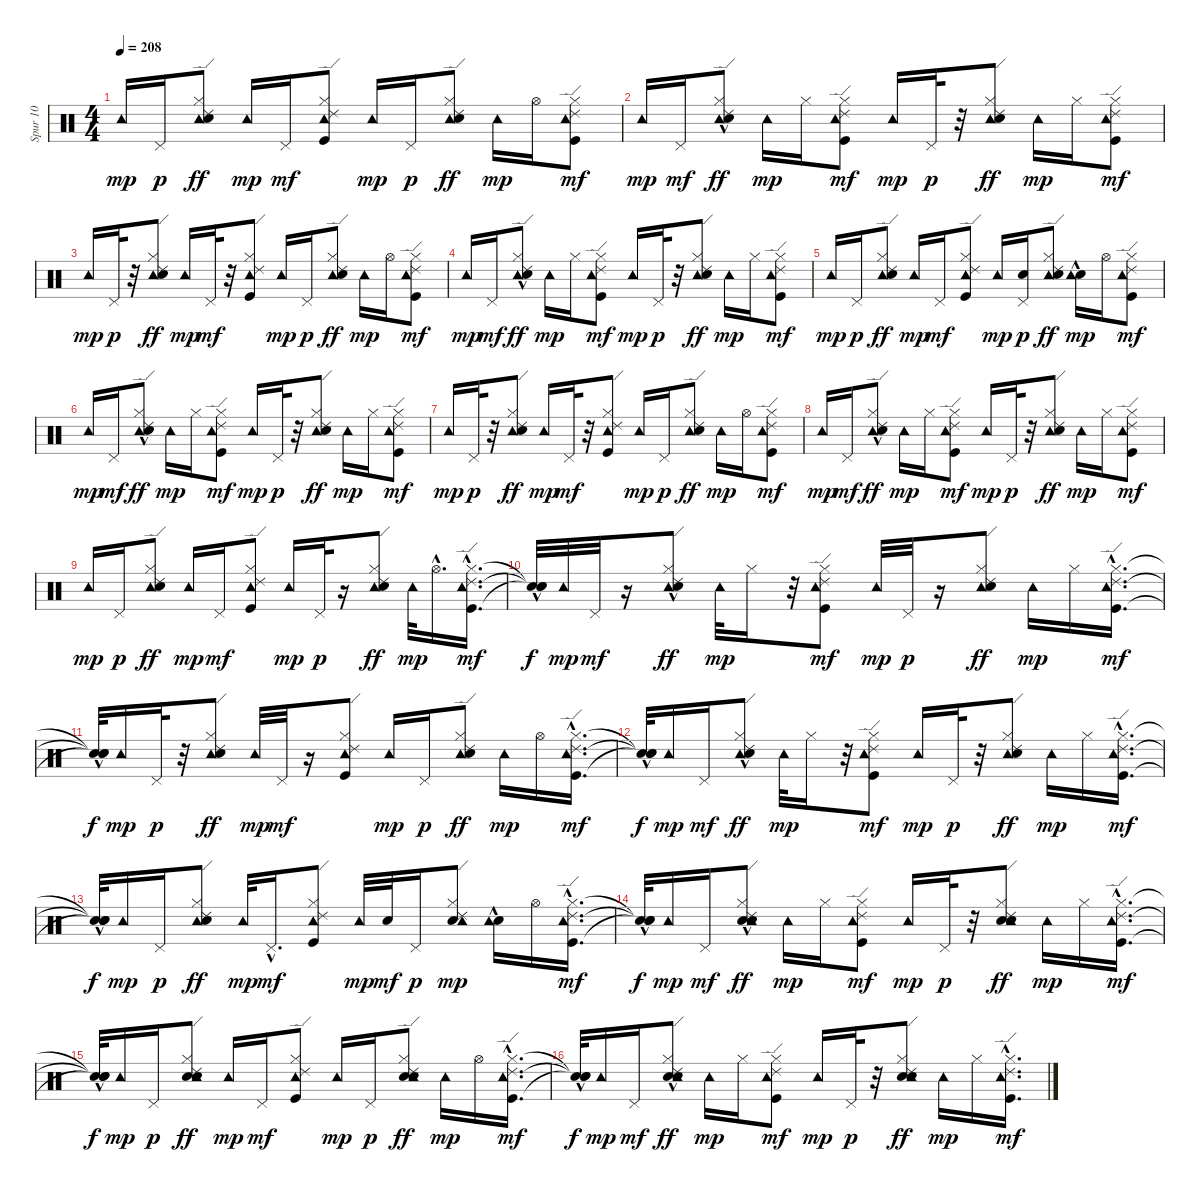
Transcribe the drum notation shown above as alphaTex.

\track ("Spur 10" "Spur 10") {instrument percussion}
\staff {score}
\articulation defaults
\ts (4 4)
\tempo 208
\clef neutral
\ks c "Tambourine (hit)".16{dy mp} "Pedal Hi-Hat (hit)".16{dy p}
("Tambourine (hit)" "Hi-Hat (closed)" "Electric Snare (hit)" "Ride (edge) 2").8{dy ff} "Tambourine (hit)".16{dy mp} "Pedal Hi-Hat (hit)".16{dy mf} ("Tambourine (hit)" "Hi-Hat (closed)" "Kick (hit)" "Ride (edge) 2").8 "Tambourine (hit)".16{dy mp} "Pedal Hi-Hat (hit)".16{dy p} ("Tambourine (hit)" "Hi-Hat (closed)" "Electric Snare (hit)" "Ride (edge) 2").8{dy ff} "Tambourine (hit)".16{dy mp} "Hi-Hat (open)".16 ("Tambourine (hit)" "Hi-Hat (closed)" "Kick (hit)" "Ride (edge) 2").8{dy mf} |
"Tambourine (hit)".16{dy mp} "Pedal Hi-Hat (hit)".16{dy mf} ("Tambourine (hit)" "Hi-Hat (closed)"{hac} "Electric Snare (hit)" "Ride (edge) 2").8{dy ff} "Tambourine (hit)".16{dy mp} "Hi-Hat (closed)".16 ("Tambourine (hit)" "Hi-Hat (closed)" "Kick (hit)" "Ride (edge) 2").8{dy mf} "Tambourine (hit)".16{dy mp} "Pedal Hi-Hat (hit)".32{dy p} r.32 ("Tambourine (hit)" "Hi-Hat (closed)" "Electric Snare (hit)" "Ride (edge) 2").8{dy ff} "Tambourine (hit)".16{dy mp} "Hi-Hat (closed)".16 ("Tambourine (hit)" "Hi-Hat (closed)" "Kick (hit)" "Ride (edge) 2").8{dy mf} |
"Tambourine (hit)".16{dy mp} "Pedal Hi-Hat (hit)".32{dy p} r.32 ("Tambourine (hit)" "Hi-Hat (closed)" "Electric Snare (hit)" "Ride (edge) 2").8{dy ff} "Tambourine (hit)".16{dy mp} "Pedal Hi-Hat (hit)".32{dy mf} r.32 ("Tambourine (hit)" "Hi-Hat (closed)" "Kick (hit)" "Ride (edge) 2").8 "Tambourine (hit)".16{dy mp} "Pedal Hi-Hat (hit)".16{dy p} ("Tambourine (hit)" "Hi-Hat (closed)" "Electric Snare (hit)" "Ride (edge) 2").8{dy ff} "Tambourine (hit)".16{dy mp} "Hi-Hat (open)".16 ("Tambourine (hit)" "Hi-Hat (closed)" "Kick (hit)" "Ride (edge) 2").8{dy mf} |
"Tambourine (hit)".16{dy mp} "Pedal Hi-Hat (hit)".16{dy mf} ("Tambourine (hit)" "Hi-Hat (closed)"{hac} "Electric Snare (hit)" "Ride (edge) 2").8{dy ff} "Tambourine (hit)".16{dy mp} "Hi-Hat (closed)".16 ("Tambourine (hit)" "Hi-Hat (closed)" "Kick (hit)" "Ride (edge) 2").8{dy mf} "Tambourine (hit)".16{dy mp} "Pedal Hi-Hat (hit)".32{dy p} r.32 ("Tambourine (hit)" "Hi-Hat (closed)" "Electric Snare (hit)" "Ride (edge) 2").8{dy ff} "Tambourine (hit)".16{dy mp} "Hi-Hat (closed)".16 ("Tambourine (hit)" "Hi-Hat (closed)" "Kick (hit)" "Ride (edge) 2").8{dy mf} |
"Tambourine (hit)".16{dy mp} "Pedal Hi-Hat (hit)".16{dy p} ("Tambourine (hit)" "Hi-Hat (closed)" "Electric Snare (hit)" "Ride (edge) 2").8{dy ff} "Tambourine (hit)".16{dy mp} "Pedal Hi-Hat (hit)".16{dy mf} ("Tambourine (hit)" "Hi-Hat (closed)" "Kick (hit)" "Ride (edge) 2").8 "Tambourine (hit)".16{dy mp} ("Electric Snare (hit)" "Pedal Hi-Hat (hit)").16{dy p} ("Tambourine (hit)" "Hi-Hat (closed)" "Electric Snare (hit)" "Ride (edge) 2").8{dy ff} ("Electric Snare (hit)"{hac} "Tambourine (hit)").16{dy mp} "Hi-Hat (open)".16 ("Tambourine (hit)" "Hi-Hat (closed)" "Kick (hit)" "Ride (edge) 2").8{dy mf} |
"Tambourine (hit)".16{dy mp} "Pedal Hi-Hat (hit)".16{dy mf} ("Tambourine (hit)" "Hi-Hat (closed)"{hac} "Electric Snare (hit)" "Ride (edge) 2").8{dy ff} "Tambourine (hit)".16{dy mp} "Hi-Hat (closed)".16 ("Tambourine (hit)" "Hi-Hat (closed)" "Kick (hit)" "Ride (edge) 2").8{dy mf} "Tambourine (hit)".16{dy mp} "Pedal Hi-Hat (hit)".32{dy p} r.32 ("Tambourine (hit)" "Hi-Hat (closed)" "Electric Snare (hit)" "Ride (edge) 2").8{dy ff} "Tambourine (hit)".16{dy mp} "Hi-Hat (closed)".16 ("Tambourine (hit)" "Hi-Hat (closed)" "Kick (hit)" "Ride (edge) 2").8{dy mf} |
"Tambourine (hit)".16{dy mp} "Pedal Hi-Hat (hit)".32{dy p} r.32 ("Tambourine (hit)" "Hi-Hat (closed)" "Electric Snare (hit)" "Ride (edge) 2").8{dy ff} "Tambourine (hit)".16{dy mp} "Pedal Hi-Hat (hit)".32{dy mf} r.32 ("Tambourine (hit)" "Hi-Hat (closed)" "Kick (hit)" "Ride (edge) 2").8 "Tambourine (hit)".16{dy mp} "Pedal Hi-Hat (hit)".16{dy p} ("Tambourine (hit)" "Hi-Hat (closed)" "Electric Snare (hit)" "Ride (edge) 2").8{dy ff} "Tambourine (hit)".16{dy mp} "Hi-Hat (open)".16 ("Tambourine (hit)" "Hi-Hat (closed)" "Kick (hit)" "Ride (edge) 2").8{dy mf} |
"Tambourine (hit)".16{dy mp} "Pedal Hi-Hat (hit)".16{dy mf} ("Tambourine (hit)" "Hi-Hat (closed)"{hac} "Electric Snare (hit)" "Ride (edge) 2").8{dy ff} "Tambourine (hit)".16{dy mp} "Hi-Hat (closed)".16 ("Tambourine (hit)" "Hi-Hat (closed)" "Kick (hit)" "Ride (edge) 2").8{dy mf} "Tambourine (hit)".16{dy mp} "Pedal Hi-Hat (hit)".32{dy p} r.32 ("Tambourine (hit)" "Hi-Hat (closed)" "Electric Snare (hit)" "Ride (edge) 2").8{dy ff} "Tambourine (hit)".16{dy mp} "Hi-Hat (closed)".16 ("Tambourine (hit)" "Hi-Hat (closed)" "Kick (hit)" "Ride (edge) 2").8{dy mf} |
"Tambourine (hit)".16{dy mp} "Pedal Hi-Hat (hit)".16{dy p} ("Tambourine (hit)" "Hi-Hat (closed)" "Electric Snare (hit)" "Ride (edge) 2").8{dy ff} "Tambourine (hit)".16{dy mp} "Pedal Hi-Hat (hit)".16{dy mf} ("Tambourine (hit)" "Hi-Hat (closed)" "Kick (hit)" "Ride (edge) 2").8 "Tambourine (hit)".16{dy mp} "Pedal Hi-Hat (hit)".32{dy p} r.16 ("Tambourine (hit)" "Hi-Hat (closed)" "Electric Snare (hit)" "Ride (edge) 2").8{dy ff} "Tambourine (hit)".32{dy mp} "Hi-Hat (open)"{hac}.16{d} ("Tambourine (hit)" "Hi-Hat (closed)"{hac} "Kick (hit)"{hac} "Ride (edge) 2"{hac}).16{d dy mf} |
("Snare (hit)"{t} "Snare (hit)"{hac t} "Snare (hit)"{t}).32{dy f} "Tambourine (hit)".32{dy mp} "Pedal Hi-Hat (hit)".32{dy mf} r.16 ("Tambourine (hit)" "Hi-Hat (closed)"{hac} "Electric Snare (hit)" "Ride (edge) 2").8{dy ff} "Tambourine (hit)".32{dy mp} "Hi-Hat (closed)".16 r.32 ("Tambourine (hit)" "Hi-Hat (closed)" "Kick (hit)" "Ride (edge) 2").8{dy mf} "Tambourine (hit)".32{dy mp} "Pedal Hi-Hat (hit)".32{dy p} r.16 ("Tambourine (hit)" "Hi-Hat (closed)" "Electric Snare (hit)" "Ride (edge) 2").8{dy ff} "Tambourine (hit)".16{dy mp} "Hi-Hat (closed)".16 ("Tambourine (hit)" "Hi-Hat (closed)"{hac} "Kick (hit)"{hac} "Ride (edge) 2"{hac}).16{d dy mf} |
("Snare (hit)"{t} "Snare (hit)"{hac t} "Snare (hit)"{t}).32{dy f} "Tambourine (hit)".16{dy mp} "Pedal Hi-Hat (hit)".32{dy p} r.32 ("Tambourine (hit)" "Hi-Hat (closed)" "Electric Snare (hit)" "Ride (edge) 2").8{dy ff} "Tambourine (hit)".32{dy mp} "Pedal Hi-Hat (hit)".32{dy mf} r.16 ("Tambourine (hit)" "Hi-Hat (closed)" "Kick (hit)" "Ride (edge) 2").8 "Tambourine (hit)".16{dy mp} "Pedal Hi-Hat (hit)".16{dy p} ("Tambourine (hit)" "Hi-Hat (closed)" "Electric Snare (hit)" "Ride (edge) 2").8{dy ff} "Tambourine (hit)".16{dy mp} "Hi-Hat (open)".16 ("Tambourine (hit)" "Hi-Hat (closed)"{hac} "Kick (hit)"{hac} "Ride (edge) 2"{hac}).16{d dy mf} |
("Snare (hit)"{t} "Snare (hit)"{hac t} "Snare (hit)"{t}).32{dy f} "Tambourine (hit)".16{dy mp} "Pedal Hi-Hat (hit)".16{dy mf} ("Tambourine (hit)" "Hi-Hat (closed)"{hac} "Electric Snare (hit)" "Ride (edge) 2").8{dy ff} "Tambourine (hit)".32{dy mp} "Hi-Hat (closed)".16 r.32 ("Tambourine (hit)" "Hi-Hat (closed)" "Kick (hit)" "Ride (edge) 2").8{dy mf} "Tambourine (hit)".16{dy mp} "Pedal Hi-Hat (hit)".32{dy p} r.32 ("Tambourine (hit)" "Hi-Hat (closed)" "Electric Snare (hit)" "Ride (edge) 2").8{dy ff} "Tambourine (hit)".16{dy mp} "Hi-Hat (closed)".16 ("Tambourine (hit)" "Hi-Hat (closed)"{hac} "Kick (hit)"{hac} "Ride (edge) 2"{hac}).16{d dy mf} |
("Snare (hit)"{t} "Snare (hit)"{hac t} "Snare (hit)"{t}).32{dy f} "Tambourine (hit)".16{dy mp} "Pedal Hi-Hat (hit)".16{dy p} ("Tambourine (hit)" "Hi-Hat (closed)" "Electric Snare (hit)" "Ride (edge) 2").8{dy ff} "Tambourine (hit)".32{dy mp} "Pedal Hi-Hat (hit)"{hac}.16{d dy mf} ("Tambourine (hit)" "Hi-Hat (closed)" "Kick (hit)" "Ride (edge) 2").8 "Tambourine (hit)".32{dy mp} "Electric Snare (hit)".32{dy mf} "Pedal Hi-Hat (hit)".16{dy p} ("Electric Snare (hit)" "Tambourine (hit)" "Hi-Hat (closed)" "Ride (edge) 2").8{dy mp} ("Electric Snare (hit)"{hac} "Tambourine (hit)").16 "Hi-Hat (open)".16 ("Tambourine (hit)" "Hi-Hat (closed)"{hac} "Kick (hit)"{hac} "Ride (edge) 2"{hac}).16{d dy mf} |
("Snare (hit)"{t} "Snare (hit)"{hac t} "Snare (hit)"{t}).32{dy f} "Tambourine (hit)".16{dy mp} "Pedal Hi-Hat (hit)".16{dy mf} ("Hand Clap (hit)" "Tambourine (hit)" "Hi-Hat (closed)"{hac} "Electric Snare (hit)" "Ride (edge) 2").8{dy ff} "Tambourine (hit)".16{dy mp} "Hi-Hat (closed)".16 ("Tambourine (hit)" "Hi-Hat (closed)" "Kick (hit)" "Ride (edge) 2").8{dy mf} "Tambourine (hit)".16{dy mp} "Pedal Hi-Hat (hit)".32{dy p} r.32 ("Hand Clap (hit)" "Tambourine (hit)" "Hi-Hat (closed)" "Electric Snare (hit)" "Ride (edge) 2").8{dy ff} "Tambourine (hit)".16{dy mp} "Hi-Hat (closed)".16 ("Tambourine (hit)" "Hi-Hat (closed)"{hac} "Kick (hit)"{hac} "Ride (edge) 2"{hac}).16{d dy mf} |
("Snare (hit)"{t} "Snare (hit)"{hac t} "Snare (hit)"{t}).32{dy f} "Tambourine (hit)".16{dy mp} "Pedal Hi-Hat (hit)".16{dy p} ("Hand Clap (hit)" "Tambourine (hit)" "Hi-Hat (closed)" "Electric Snare (hit)" "Ride (edge) 2").8{dy ff} "Tambourine (hit)".16{dy mp} "Pedal Hi-Hat (hit)".16{dy mf} ("Tambourine (hit)" "Hi-Hat (closed)" "Kick (hit)" "Ride (edge) 2").8 "Tambourine (hit)".16{dy mp} "Pedal Hi-Hat (hit)".16{dy p} ("Hand Clap (hit)" "Tambourine (hit)" "Hi-Hat (closed)" "Electric Snare (hit)" "Ride (edge) 2").8{dy ff} "Tambourine (hit)".16{dy mp} "Hi-Hat (open)".16 ("Tambourine (hit)" "Hi-Hat (closed)"{hac} "Kick (hit)"{hac} "Ride (edge) 2"{hac}).16{d dy mf} |
("Snare (hit)"{t} "Snare (hit)"{hac t} "Snare (hit)"{t}).32{dy f} "Tambourine (hit)".16{dy mp} "Pedal Hi-Hat (hit)".16{dy mf} ("Hand Clap (hit)" "Tambourine (hit)" "Hi-Hat (closed)"{hac} "Electric Snare (hit)" "Ride (edge) 2").8{dy ff} "Tambourine (hit)".16{dy mp} "Hi-Hat (closed)".16 ("Tambourine (hit)" "Hi-Hat (closed)" "Kick (hit)" "Ride (edge) 2").8{dy mf} "Tambourine (hit)".16{dy mp} "Pedal Hi-Hat (hit)".32{dy p} r.32 ("Hand Clap (hit)" "Tambourine (hit)" "Hi-Hat (closed)" "Electric Snare (hit)" "Ride (edge) 2").8{dy ff} "Tambourine (hit)".16{dy mp} "Hi-Hat (closed)".16 ("Tambourine (hit)" "Hi-Hat (closed)"{hac} "Kick (hit)"{hac} "Ride (edge) 2"{hac}).16{d dy mf}
